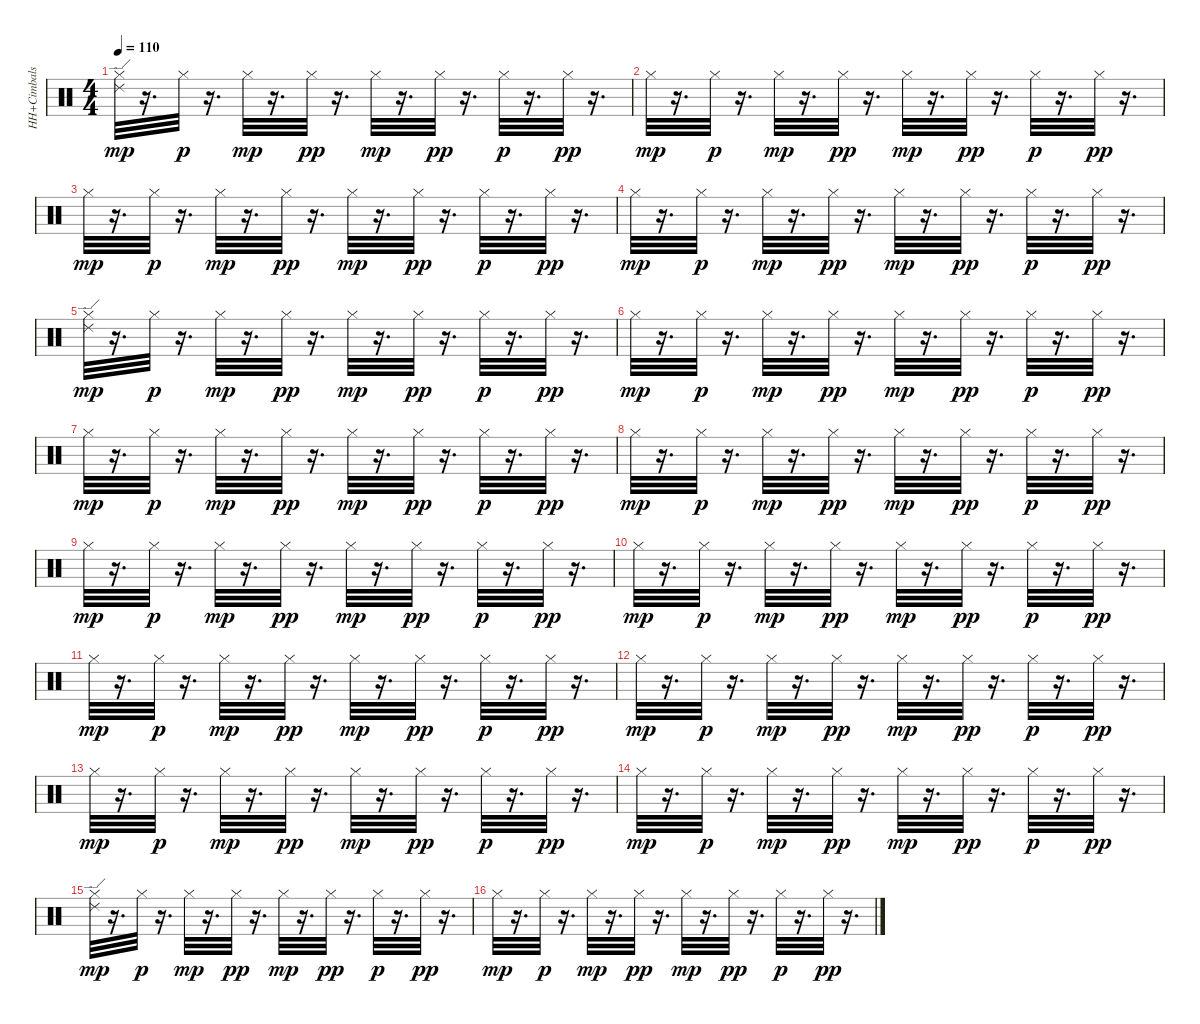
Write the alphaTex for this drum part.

\track ("HH+Cimbals" "HH+Cimbals") {instrument percussion}
\staff {score}
\articulation defaults
\ts (4 4)
\tempo 110
\clef neutral
\ks c
("Ride (edge) 2" "Hi-Hat (closed)").32{dy mp} r.16{d} "Hi-Hat (closed)".32{dy p} r.16{d} "Hi-Hat (closed)".32{dy mp} r.16{d} "Hi-Hat (closed)".32{dy pp} r.16{d} "Hi-Hat (closed)".32{dy mp} r.16{d} "Hi-Hat (closed)".32{dy pp} r.16{d} "Hi-Hat (closed)".32{dy p} r.16{d} "Hi-Hat (closed)".32{dy pp} r.16{d} |
"Hi-Hat (closed)".32{dy mp} r.16{d} "Hi-Hat (closed)".32{dy p} r.16{d} "Hi-Hat (closed)".32{dy mp} r.16{d} "Hi-Hat (closed)".32{dy pp} r.16{d} "Hi-Hat (closed)".32{dy mp} r.16{d} "Hi-Hat (closed)".32{dy pp} r.16{d} "Hi-Hat (closed)".32{dy p} r.16{d} "Hi-Hat (closed)".32{dy pp} r.16{d} |
"Hi-Hat (closed)".32{dy mp} r.16{d} "Hi-Hat (closed)".32{dy p} r.16{d} "Hi-Hat (closed)".32{dy mp} r.16{d} "Hi-Hat (closed)".32{dy pp} r.16{d} "Hi-Hat (closed)".32{dy mp} r.16{d} "Hi-Hat (closed)".32{dy pp} r.16{d} "Hi-Hat (closed)".32{dy p} r.16{d} "Hi-Hat (closed)".32{dy pp} r.16{d} |
"Hi-Hat (closed)".32{dy mp} r.16{d} "Hi-Hat (closed)".32{dy p} r.16{d} "Hi-Hat (closed)".32{dy mp} r.16{d} "Hi-Hat (closed)".32{dy pp} r.16{d} "Hi-Hat (closed)".32{dy mp} r.16{d} "Hi-Hat (closed)".32{dy pp} r.16{d} "Hi-Hat (closed)".32{dy p} r.16{d} "Hi-Hat (closed)".32{dy pp} r.16{d} |
("Ride (edge) 2" "Hi-Hat (closed)").32{dy mp} r.16{d} "Hi-Hat (closed)".32{dy p} r.16{d} "Hi-Hat (closed)".32{dy mp} r.16{d} "Hi-Hat (closed)".32{dy pp} r.16{d} "Hi-Hat (closed)".32{dy mp} r.16{d} "Hi-Hat (closed)".32{dy pp} r.16{d} "Hi-Hat (closed)".32{dy p} r.16{d} "Hi-Hat (closed)".32{dy pp} r.16{d} |
"Hi-Hat (closed)".32{dy mp} r.16{d} "Hi-Hat (closed)".32{dy p} r.16{d} "Hi-Hat (closed)".32{dy mp} r.16{d} "Hi-Hat (closed)".32{dy pp} r.16{d} "Hi-Hat (closed)".32{dy mp} r.16{d} "Hi-Hat (closed)".32{dy pp} r.16{d} "Hi-Hat (closed)".32{dy p} r.16{d} "Hi-Hat (closed)".32{dy pp} r.16{d} |
"Hi-Hat (closed)".32{dy mp} r.16{d} "Hi-Hat (closed)".32{dy p} r.16{d} "Hi-Hat (closed)".32{dy mp} r.16{d} "Hi-Hat (closed)".32{dy pp} r.16{d} "Hi-Hat (closed)".32{dy mp} r.16{d} "Hi-Hat (closed)".32{dy pp} r.16{d} "Hi-Hat (closed)".32{dy p} r.16{d} "Hi-Hat (closed)".32{dy pp} r.16{d} |
"Hi-Hat (closed)".32{dy mp} r.16{d} "Hi-Hat (closed)".32{dy p} r.16{d} "Hi-Hat (closed)".32{dy mp} r.16{d} "Hi-Hat (closed)".32{dy pp} r.16{d} "Hi-Hat (closed)".32{dy mp} r.16{d} "Hi-Hat (closed)".32{dy pp} r.16{d} "Hi-Hat (closed)".32{dy p} r.16{d} "Hi-Hat (closed)".32{dy pp} r.16{d} |
"Hi-Hat (closed)".32{dy mp} r.16{d} "Hi-Hat (closed)".32{dy p} r.16{d} "Hi-Hat (closed)".32{dy mp} r.16{d} "Hi-Hat (closed)".32{dy pp} r.16{d} "Hi-Hat (closed)".32{dy mp} r.16{d} "Hi-Hat (closed)".32{dy pp} r.16{d} "Hi-Hat (closed)".32{dy p} r.16{d} "Hi-Hat (closed)".32{dy pp} r.16{d} |
"Hi-Hat (closed)".32{dy mp} r.16{d} "Hi-Hat (closed)".32{dy p} r.16{d} "Hi-Hat (closed)".32{dy mp} r.16{d} "Hi-Hat (closed)".32{dy pp} r.16{d} "Hi-Hat (closed)".32{dy mp} r.16{d} "Hi-Hat (closed)".32{dy pp} r.16{d} "Hi-Hat (closed)".32{dy p} r.16{d} "Hi-Hat (closed)".32{dy pp} r.16{d} |
"Hi-Hat (closed)".32{dy mp} r.16{d} "Hi-Hat (closed)".32{dy p} r.16{d} "Hi-Hat (closed)".32{dy mp} r.16{d} "Hi-Hat (closed)".32{dy pp} r.16{d} "Hi-Hat (closed)".32{dy mp} r.16{d} "Hi-Hat (closed)".32{dy pp} r.16{d} "Hi-Hat (closed)".32{dy p} r.16{d} "Hi-Hat (closed)".32{dy pp} r.16{d} |
"Hi-Hat (closed)".32{dy mp} r.16{d} "Hi-Hat (closed)".32{dy p} r.16{d} "Hi-Hat (closed)".32{dy mp} r.16{d} "Hi-Hat (closed)".32{dy pp} r.16{d} "Hi-Hat (closed)".32{dy mp} r.16{d} "Hi-Hat (closed)".32{dy pp} r.16{d} "Hi-Hat (closed)".32{dy p} r.16{d} "Hi-Hat (closed)".32{dy pp} r.16{d} |
"Hi-Hat (closed)".32{dy mp} r.16{d} "Hi-Hat (closed)".32{dy p} r.16{d} "Hi-Hat (closed)".32{dy mp} r.16{d} "Hi-Hat (closed)".32{dy pp} r.16{d} "Hi-Hat (closed)".32{dy mp} r.16{d} "Hi-Hat (closed)".32{dy pp} r.16{d} "Hi-Hat (closed)".32{dy p} r.16{d} "Hi-Hat (closed)".32{dy pp} r.16{d} |
"Hi-Hat (closed)".32{dy mp} r.16{d} "Hi-Hat (closed)".32{dy p} r.16{d} "Hi-Hat (closed)".32{dy mp} r.16{d} "Hi-Hat (closed)".32{dy pp} r.16{d} "Hi-Hat (closed)".32{dy mp} r.16{d} "Hi-Hat (closed)".32{dy pp} r.16{d} "Hi-Hat (closed)".32{dy p} r.16{d} "Hi-Hat (closed)".32{dy pp} r.16{d} |
("Ride (edge) 2" "Hi-Hat (closed)").32{dy mp} r.16{d} "Hi-Hat (closed)".32{dy p} r.16{d} "Hi-Hat (closed)".32{dy mp} r.16{d} "Hi-Hat (closed)".32{dy pp} r.16{d} "Hi-Hat (closed)".32{dy mp} r.16{d} "Hi-Hat (closed)".32{dy pp} r.16{d} "Hi-Hat (closed)".32{dy p} r.16{d} "Hi-Hat (closed)".32{dy pp} r.16{d} |
"Hi-Hat (closed)".32{dy mp} r.16{d} "Hi-Hat (closed)".32{dy p} r.16{d} "Hi-Hat (closed)".32{dy mp} r.16{d} "Hi-Hat (closed)".32{dy pp} r.16{d} "Hi-Hat (closed)".32{dy mp} r.16{d} "Hi-Hat (closed)".32{dy pp} r.16{d} "Hi-Hat (closed)".32{dy p} r.16{d} "Hi-Hat (closed)".32{dy pp} r.16{d}
